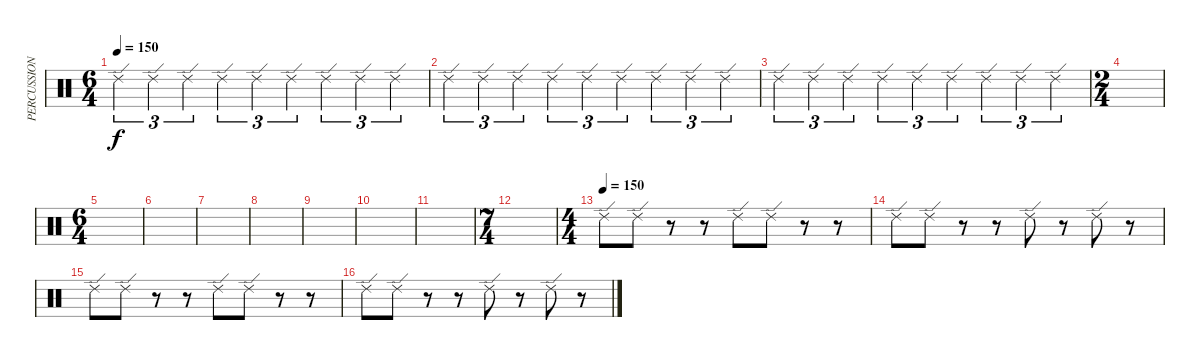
\track ("PERCUSSION" "PERCUSSION") {instrument percussion}
\staff {score}
\articulation defaults
\ts (6 4)
\tempo 150
\clef neutral
\ks c "Ride (edge) 2".4{tu (3 2) dy f} "Ride (edge) 2".4{tu (3 2)} "Ride (edge) 2".4{tu (3 2)} "Ride (edge) 2".4{tu (3 2)} "Ride (edge) 2".4{tu (3 2)} "Ride (edge) 2".4{tu (3 2)} "Ride (edge) 2".4{tu (3 2)} "Ride (edge) 2".4{tu (3 2)} "Ride (edge) 2".4{tu (3 2)}
|
"Ride (edge) 2".4{tu (3 2)} "Ride (edge) 2".4{tu (3 2)} "Ride (edge) 2".4{tu (3 2)} "Ride (edge) 2".4{tu (3 2)} "Ride (edge) 2".4{tu (3 2)} "Ride (edge) 2".4{tu (3 2)} "Ride (edge) 2".4{tu (3 2)} "Ride (edge) 2".4{tu (3 2)} "Ride (edge) 2".4{tu (3 2)} |
"Ride (edge) 2".4{tu (3 2)} "Ride (edge) 2".4{tu (3 2)} "Ride (edge) 2".4{tu (3 2)} "Ride (edge) 2".4{tu (3 2)} "Ride (edge) 2".4{tu (3 2)} "Ride (edge) 2".4{tu (3 2)} "Ride (edge) 2".4{tu (3 2)} "Ride (edge) 2".4{tu (3 2)} "Ride (edge) 2".4{tu (3 2)} |
\ts (2 4)
|
\ts (6 4)
|
|
|
|
|
|
|
\ts (7 4)
|
\ts (4 4)
\tempo (150)
"Ride (edge) 2".8 "Ride (edge) 2".8 r.8 r.8 "Ride (edge) 2".8 "Ride (edge) 2".8 r.8 r.8 |
"Ride (edge) 2".8 "Ride (edge) 2".8 r.8 r.8 "Ride (edge) 2".8 r.8 "Ride (edge) 2".8 r.8 |
"Ride (edge) 2".8 "Ride (edge) 2".8 r.8 r.8 "Ride (edge) 2".8 "Ride (edge) 2".8 r.8 r.8 |
"Ride (edge) 2".8 "Ride (edge) 2".8 r.8 r.8 "Ride (edge) 2".8 r.8 "Ride (edge) 2".8 r.8
